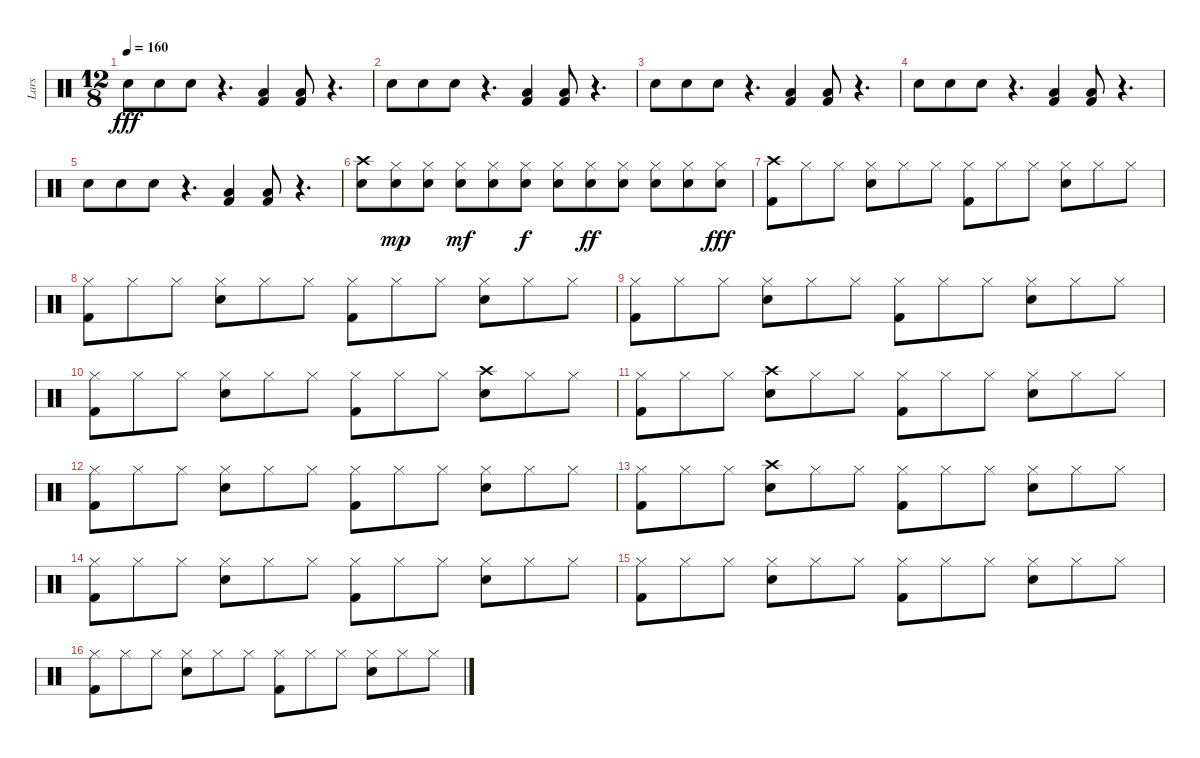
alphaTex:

\track ("Lars" "Lars") {instrument percussion}
\staff {score}
\articulation defaults
\ts (12 8)
\tempo 160
\clef neutral
\ks c "Electric Snare (hit)".8{dy fff} "Electric Snare (hit)".8 "Electric Snare (hit)".8
r.4{d} ("Low Floor Tom (hit)" "Kick (hit) 2").4 ("Low Floor Tom (hit)" "Kick (hit) 2").8 r.4{d} |
"Electric Snare (hit)".8 "Electric Snare (hit)".8 "Electric Snare (hit)".8 r.4{d} ("Low Floor Tom (hit)" "Kick (hit) 2").4 ("Low Floor Tom (hit)" "Kick (hit) 2").8 r.4{d} |
"Electric Snare (hit)".8 "Electric Snare (hit)".8 "Electric Snare (hit)".8 r.4{d} ("Low Floor Tom (hit)" "Kick (hit) 2").4 ("Low Floor Tom (hit)" "Kick (hit) 2").8 r.4{d} |
"Electric Snare (hit)".8 "Electric Snare (hit)".8 "Electric Snare (hit)".8 r.4{d} ("Low Floor Tom (hit)" "Kick (hit) 2").4 ("Low Floor Tom (hit)" "Kick (hit) 2").8 r.4{d} |
"Electric Snare (hit)".8 "Electric Snare (hit)".8 "Electric Snare (hit)".8 r.4{d} ("Low Floor Tom (hit)" "Kick (hit) 2").4 ("Low Floor Tom (hit)" "Kick (hit) 2").8 r.4{d} |
("Crash high (hit)" "Electric Snare (hit)").8 ("Hi-Hat (closed)" "Electric Snare (hit)").8{dy mp} ("Hi-Hat (closed)" "Electric Snare (hit)").8 ("Hi-Hat (closed)" "Electric Snare (hit)").8{dy mf} ("Hi-Hat (closed)" "Electric Snare (hit)").8 ("Hi-Hat (closed)" "Electric Snare (hit)").8{dy f} ("Hi-Hat (closed)" "Electric Snare (hit)").8 ("Hi-Hat (closed)" "Electric Snare (hit)").8{dy ff} ("Hi-Hat (closed)" "Electric Snare (hit)").8 ("Hi-Hat (closed)" "Electric Snare (hit)").8 ("Hi-Hat (closed)" "Electric Snare (hit)").8 ("Hi-Hat (closed)" "Electric Snare (hit)").8{dy fff} |
("Crash high (hit)" "Kick (hit) 2").8 "Hi-Hat (closed)".8 "Hi-Hat (closed)".8 ("Hi-Hat (closed)" "Electric Snare (hit)").8 "Hi-Hat (closed)".8 "Hi-Hat (closed)".8 ("Hi-Hat (closed)" "Kick (hit) 2").8 "Hi-Hat (closed)".8 "Hi-Hat (closed)".8 ("Hi-Hat (closed)" "Electric Snare (hit)").8 "Hi-Hat (closed)".8 "Hi-Hat (closed)".8 |
("Hi-Hat (closed)" "Kick (hit) 2").8 "Hi-Hat (closed)".8 "Hi-Hat (closed)".8 ("Hi-Hat (closed)" "Electric Snare (hit)").8 "Hi-Hat (closed)".8 "Hi-Hat (closed)".8 ("Hi-Hat (closed)" "Kick (hit) 2").8 "Hi-Hat (closed)".8 "Hi-Hat (closed)".8 ("Hi-Hat (closed)" "Electric Snare (hit)").8 "Hi-Hat (closed)".8 "Hi-Hat (closed)".8 |
("Hi-Hat (closed)" "Kick (hit) 2").8 "Hi-Hat (closed)".8 "Hi-Hat (closed)".8 ("Hi-Hat (closed)" "Electric Snare (hit)").8 "Hi-Hat (closed)".8 "Hi-Hat (closed)".8 ("Hi-Hat (closed)" "Kick (hit) 2").8 "Hi-Hat (closed)".8 "Hi-Hat (closed)".8 ("Hi-Hat (closed)" "Electric Snare (hit)").8 "Hi-Hat (closed)".8 "Hi-Hat (closed)".8 |
("Hi-Hat (closed)" "Kick (hit) 2").8 "Hi-Hat (closed)".8 "Hi-Hat (closed)".8 ("Hi-Hat (closed)" "Electric Snare (hit)").8 "Hi-Hat (closed)".8 "Hi-Hat (closed)".8 ("Hi-Hat (closed)" "Kick (hit) 2").8 "Hi-Hat (closed)".8 "Hi-Hat (closed)".8 ("Crash high (hit)" "Electric Snare (hit)").8 "Hi-Hat (closed)".8 "Hi-Hat (closed)".8 |
("Hi-Hat (closed)" "Kick (hit) 2").8 "Hi-Hat (closed)".8 "Hi-Hat (closed)".8 ("Crash high (hit)" "Electric Snare (hit)").8 "Hi-Hat (closed)".8 "Hi-Hat (closed)".8 ("Hi-Hat (closed)" "Kick (hit) 2").8 "Hi-Hat (closed)".8 "Hi-Hat (closed)".8 ("Hi-Hat (closed)" "Electric Snare (hit)").8 "Hi-Hat (closed)".8 "Hi-Hat (closed)".8 |
("Hi-Hat (closed)" "Kick (hit) 2").8 "Hi-Hat (closed)".8 "Hi-Hat (closed)".8 ("Hi-Hat (closed)" "Electric Snare (hit)").8 "Hi-Hat (closed)".8 "Hi-Hat (closed)".8 ("Hi-Hat (closed)" "Kick (hit) 2").8 "Hi-Hat (closed)".8 "Hi-Hat (closed)".8 ("Hi-Hat (closed)" "Electric Snare (hit)").8 "Hi-Hat (closed)".8 "Hi-Hat (closed)".8 |
("Hi-Hat (closed)" "Kick (hit) 2").8 "Hi-Hat (closed)".8 "Hi-Hat (closed)".8 ("Crash high (hit)" "Electric Snare (hit)").8 "Hi-Hat (closed)".8 "Hi-Hat (closed)".8 ("Hi-Hat (closed)" "Kick (hit) 2").8 "Hi-Hat (closed)".8 "Hi-Hat (closed)".8 ("Hi-Hat (closed)" "Electric Snare (hit)").8 "Hi-Hat (closed)".8 "Hi-Hat (closed)".8 |
("Hi-Hat (closed)" "Kick (hit) 2").8 "Hi-Hat (closed)".8 "Hi-Hat (closed)".8 ("Hi-Hat (closed)" "Electric Snare (hit)").8 "Hi-Hat (closed)".8 "Hi-Hat (closed)".8 ("Hi-Hat (closed)" "Kick (hit) 2").8 "Hi-Hat (closed)".8 "Hi-Hat (closed)".8 ("Hi-Hat (closed)" "Electric Snare (hit)").8 "Hi-Hat (closed)".8 "Hi-Hat (closed)".8 |
("Hi-Hat (closed)" "Kick (hit) 2").8 "Hi-Hat (closed)".8 "Hi-Hat (closed)".8 ("Hi-Hat (closed)" "Electric Snare (hit)").8 "Hi-Hat (closed)".8 "Hi-Hat (closed)".8 ("Hi-Hat (closed)" "Kick (hit) 2").8 "Hi-Hat (closed)".8 "Hi-Hat (closed)".8 ("Hi-Hat (closed)" "Electric Snare (hit)").8 "Hi-Hat (closed)".8 "Hi-Hat (closed)".8 |
("Hi-Hat (closed)" "Kick (hit) 2").8 "Hi-Hat (closed)".8 "Hi-Hat (closed)".8 ("Hi-Hat (closed)" "Electric Snare (hit)").8 "Hi-Hat (closed)".8 "Hi-Hat (closed)".8 ("Hi-Hat (closed)" "Kick (hit) 2").8 "Hi-Hat (closed)".8 "Hi-Hat (closed)".8 ("Hi-Hat (closed)" "Electric Snare (hit)").8 "Hi-Hat (closed)".8 "Hi-Hat (closed)".8
